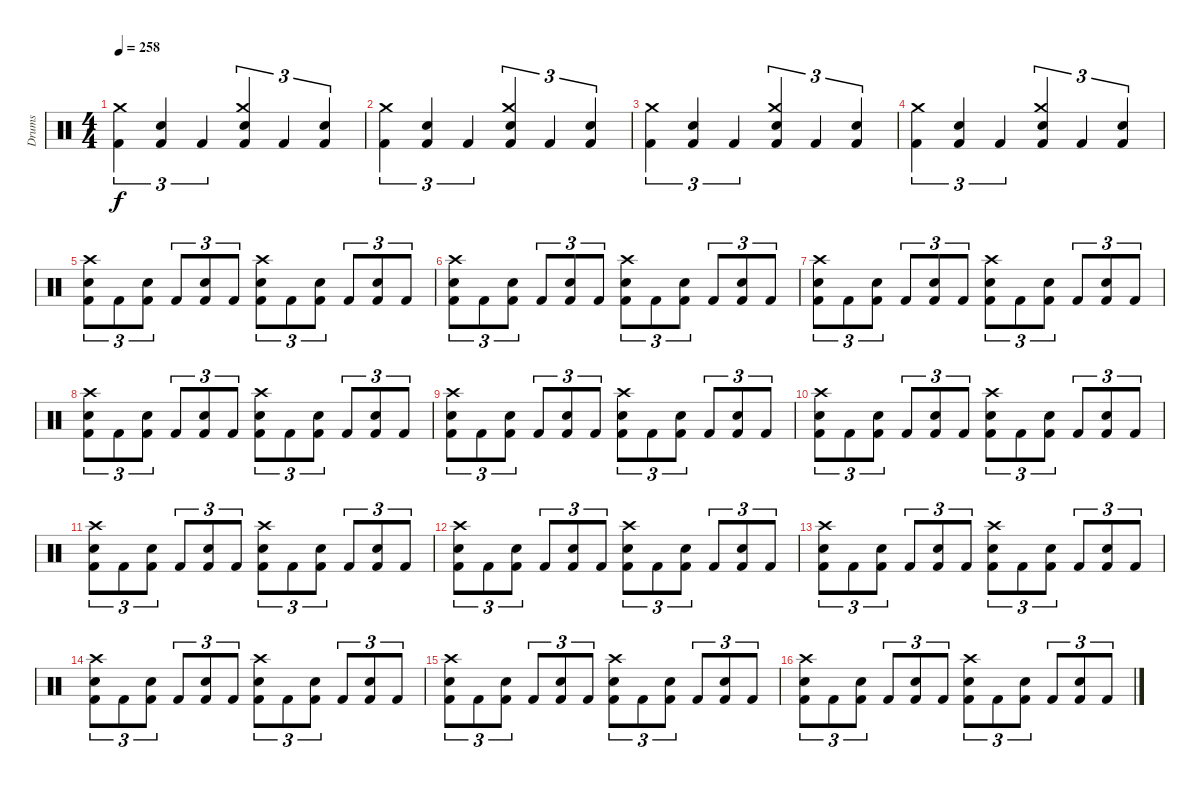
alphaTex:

\track ("Drums" "Drums") {instrument percussion}
\staff {score}
\articulation defaults
\ts (4 4)
\tempo 258
\clef neutral
\ks c
("Kick (hit) 2" "Crash medium (hit)").4{tu (3 2) dy f} ("Kick (hit) 2" "Snare (hit) 2").4{tu (3 2)} "Kick (hit) 2".4{tu (3 2)} ("Kick (hit) 2" "Snare (hit) 2" "Crash medium (hit)").4{tu (3 2)} "Kick (hit) 2".4{tu (3 2)} ("Kick (hit) 2" "Snare (hit) 2").4{tu (3 2)} |
("Kick (hit) 2" "Crash medium (hit)").4{tu (3 2)} ("Kick (hit) 2" "Snare (hit) 2").4{tu (3 2)} "Kick (hit) 2".4{tu (3 2)} ("Kick (hit) 2" "Snare (hit) 2" "Crash medium (hit)").4{tu (3 2)} "Kick (hit) 2".4{tu (3 2)} ("Kick (hit) 2" "Snare (hit) 2").4{tu (3 2)} |
("Kick (hit) 2" "Crash medium (hit)").4{tu (3 2)} ("Kick (hit) 2" "Snare (hit) 2").4{tu (3 2)} "Kick (hit) 2".4{tu (3 2)} ("Kick (hit) 2" "Snare (hit) 2" "Crash medium (hit)").4{tu (3 2)} "Kick (hit) 2".4{tu (3 2)} ("Kick (hit) 2" "Snare (hit) 2").4{tu (3 2)} |
("Kick (hit) 2" "Crash medium (hit)").4{tu (3 2)} ("Kick (hit) 2" "Snare (hit) 2").4{tu (3 2)} "Kick (hit) 2".4{tu (3 2)} ("Kick (hit) 2" "Snare (hit) 2" "Crash medium (hit)").4{tu (3 2)} "Kick (hit) 2".4{tu (3 2)} ("Kick (hit) 2" "Snare (hit) 2").4{tu (3 2)} |
("Kick (hit) 2" "Snare (hit) 2" "Crash high (hit)").8{tu (3 2)} "Kick (hit) 2".8{tu (3 2)} ("Kick (hit) 2" "Snare (hit) 2").8{tu (3 2)} "Kick (hit) 2".8{tu (3 2)} ("Kick (hit) 2" "Snare (hit) 2").8{tu (3 2)} "Kick (hit) 2".8{tu (3 2)} ("Kick (hit) 2" "Snare (hit) 2" "Crash high (hit)").8{tu (3 2)} "Kick (hit) 2".8{tu (3 2)} ("Kick (hit) 2" "Snare (hit) 2").8{tu (3 2)} "Kick (hit) 2".8{tu (3 2)} ("Kick (hit) 2" "Snare (hit) 2").8{tu (3 2)} "Kick (hit) 2".8{tu (3 2)} |
("Kick (hit) 2" "Snare (hit) 2" "Crash high (hit)").8{tu (3 2)} "Kick (hit) 2".8{tu (3 2)} ("Kick (hit) 2" "Snare (hit) 2").8{tu (3 2)} "Kick (hit) 2".8{tu (3 2)} ("Kick (hit) 2" "Snare (hit) 2").8{tu (3 2)} "Kick (hit) 2".8{tu (3 2)} ("Kick (hit) 2" "Snare (hit) 2" "Crash high (hit)").8{tu (3 2)} "Kick (hit) 2".8{tu (3 2)} ("Kick (hit) 2" "Snare (hit) 2").8{tu (3 2)} "Kick (hit) 2".8{tu (3 2)} ("Kick (hit) 2" "Snare (hit) 2").8{tu (3 2)} "Kick (hit) 2".8{tu (3 2)} |
("Kick (hit) 2" "Snare (hit) 2" "Crash high (hit)").8{tu (3 2)} "Kick (hit) 2".8{tu (3 2)} ("Kick (hit) 2" "Snare (hit) 2").8{tu (3 2)} "Kick (hit) 2".8{tu (3 2)} ("Kick (hit) 2" "Snare (hit) 2").8{tu (3 2)} "Kick (hit) 2".8{tu (3 2)} ("Kick (hit) 2" "Snare (hit) 2" "Crash high (hit)").8{tu (3 2)} "Kick (hit) 2".8{tu (3 2)} ("Kick (hit) 2" "Snare (hit) 2").8{tu (3 2)} "Kick (hit) 2".8{tu (3 2)} ("Kick (hit) 2" "Snare (hit) 2").8{tu (3 2)} "Kick (hit) 2".8{tu (3 2)} |
("Kick (hit) 2" "Snare (hit) 2" "Crash high (hit)").8{tu (3 2)} "Kick (hit) 2".8{tu (3 2)} ("Kick (hit) 2" "Snare (hit) 2").8{tu (3 2)} "Kick (hit) 2".8{tu (3 2)} ("Kick (hit) 2" "Snare (hit) 2").8{tu (3 2)} "Kick (hit) 2".8{tu (3 2)} ("Kick (hit) 2" "Snare (hit) 2" "Crash high (hit)").8{tu (3 2)} "Kick (hit) 2".8{tu (3 2)} ("Kick (hit) 2" "Snare (hit) 2").8{tu (3 2)} "Kick (hit) 2".8{tu (3 2)} ("Kick (hit) 2" "Snare (hit) 2").8{tu (3 2)} "Kick (hit) 2".8{tu (3 2)} |
("Kick (hit) 2" "Snare (hit) 2" "Crash high (hit)").8{tu (3 2)} "Kick (hit) 2".8{tu (3 2)} ("Kick (hit) 2" "Snare (hit) 2").8{tu (3 2)} "Kick (hit) 2".8{tu (3 2)} ("Kick (hit) 2" "Snare (hit) 2").8{tu (3 2)} "Kick (hit) 2".8{tu (3 2)} ("Kick (hit) 2" "Snare (hit) 2" "Crash high (hit)").8{tu (3 2)} "Kick (hit) 2".8{tu (3 2)} ("Kick (hit) 2" "Snare (hit) 2").8{tu (3 2)} "Kick (hit) 2".8{tu (3 2)} ("Kick (hit) 2" "Snare (hit) 2").8{tu (3 2)} "Kick (hit) 2".8{tu (3 2)} |
("Kick (hit) 2" "Snare (hit) 2" "Crash high (hit)").8{tu (3 2)} "Kick (hit) 2".8{tu (3 2)} ("Kick (hit) 2" "Snare (hit) 2").8{tu (3 2)} "Kick (hit) 2".8{tu (3 2)} ("Kick (hit) 2" "Snare (hit) 2").8{tu (3 2)} "Kick (hit) 2".8{tu (3 2)} ("Kick (hit) 2" "Snare (hit) 2" "Crash high (hit)").8{tu (3 2)} "Kick (hit) 2".8{tu (3 2)} ("Kick (hit) 2" "Snare (hit) 2").8{tu (3 2)} "Kick (hit) 2".8{tu (3 2)} ("Kick (hit) 2" "Snare (hit) 2").8{tu (3 2)} "Kick (hit) 2".8{tu (3 2)} |
("Kick (hit) 2" "Snare (hit) 2" "Crash high (hit)").8{tu (3 2)} "Kick (hit) 2".8{tu (3 2)} ("Kick (hit) 2" "Snare (hit) 2").8{tu (3 2)} "Kick (hit) 2".8{tu (3 2)} ("Kick (hit) 2" "Snare (hit) 2").8{tu (3 2)} "Kick (hit) 2".8{tu (3 2)} ("Kick (hit) 2" "Snare (hit) 2" "Crash high (hit)").8{tu (3 2)} "Kick (hit) 2".8{tu (3 2)} ("Kick (hit) 2" "Snare (hit) 2").8{tu (3 2)} "Kick (hit) 2".8{tu (3 2)} ("Kick (hit) 2" "Snare (hit) 2").8{tu (3 2)} "Kick (hit) 2".8{tu (3 2)} |
("Kick (hit) 2" "Snare (hit) 2" "Crash high (hit)").8{tu (3 2)} "Kick (hit) 2".8{tu (3 2)} ("Kick (hit) 2" "Snare (hit) 2").8{tu (3 2)} "Kick (hit) 2".8{tu (3 2)} ("Kick (hit) 2" "Snare (hit) 2").8{tu (3 2)} "Kick (hit) 2".8{tu (3 2)} ("Kick (hit) 2" "Snare (hit) 2" "Crash high (hit)").8{tu (3 2)} "Kick (hit) 2".8{tu (3 2)} ("Kick (hit) 2" "Snare (hit) 2").8{tu (3 2)} "Kick (hit) 2".8{tu (3 2)} ("Kick (hit) 2" "Snare (hit) 2").8{tu (3 2)} "Kick (hit) 2".8{tu (3 2)} |
("Kick (hit) 2" "Snare (hit) 2" "Crash high (hit)").8{tu (3 2)} "Kick (hit) 2".8{tu (3 2)} ("Kick (hit) 2" "Snare (hit) 2").8{tu (3 2)} "Kick (hit) 2".8{tu (3 2)} ("Kick (hit) 2" "Snare (hit) 2").8{tu (3 2)} "Kick (hit) 2".8{tu (3 2)} ("Kick (hit) 2" "Snare (hit) 2" "Crash high (hit)").8{tu (3 2)} "Kick (hit) 2".8{tu (3 2)} ("Kick (hit) 2" "Snare (hit) 2").8{tu (3 2)} "Kick (hit) 2".8{tu (3 2)} ("Kick (hit) 2" "Snare (hit) 2").8{tu (3 2)} "Kick (hit) 2".8{tu (3 2)} |
("Kick (hit) 2" "Snare (hit) 2" "Crash high (hit)").8{tu (3 2)} "Kick (hit) 2".8{tu (3 2)} ("Kick (hit) 2" "Snare (hit) 2").8{tu (3 2)} "Kick (hit) 2".8{tu (3 2)} ("Kick (hit) 2" "Snare (hit) 2").8{tu (3 2)} "Kick (hit) 2".8{tu (3 2)} ("Kick (hit) 2" "Snare (hit) 2" "Crash high (hit)").8{tu (3 2)} "Kick (hit) 2".8{tu (3 2)} ("Kick (hit) 2" "Snare (hit) 2").8{tu (3 2)} "Kick (hit) 2".8{tu (3 2)} ("Kick (hit) 2" "Snare (hit) 2").8{tu (3 2)} "Kick (hit) 2".8{tu (3 2)} |
("Kick (hit) 2" "Snare (hit) 2" "Crash high (hit)").8{tu (3 2)} "Kick (hit) 2".8{tu (3 2)} ("Kick (hit) 2" "Snare (hit) 2").8{tu (3 2)} "Kick (hit) 2".8{tu (3 2)} ("Kick (hit) 2" "Snare (hit) 2").8{tu (3 2)} "Kick (hit) 2".8{tu (3 2)} ("Kick (hit) 2" "Snare (hit) 2" "Crash high (hit)").8{tu (3 2)} "Kick (hit) 2".8{tu (3 2)} ("Kick (hit) 2" "Snare (hit) 2").8{tu (3 2)} "Kick (hit) 2".8{tu (3 2)} ("Kick (hit) 2" "Snare (hit) 2").8{tu (3 2)} "Kick (hit) 2".8{tu (3 2)} |
("Kick (hit) 2" "Snare (hit) 2" "Crash high (hit)").8{tu (3 2)} "Kick (hit) 2".8{tu (3 2)} ("Kick (hit) 2" "Snare (hit) 2").8{tu (3 2)} "Kick (hit) 2".8{tu (3 2)} ("Kick (hit) 2" "Snare (hit) 2").8{tu (3 2)} "Kick (hit) 2".8{tu (3 2)} ("Kick (hit) 2" "Snare (hit) 2" "Crash high (hit)").8{tu (3 2)} "Kick (hit) 2".8{tu (3 2)} ("Kick (hit) 2" "Snare (hit) 2").8{tu (3 2)} "Kick (hit) 2".8{tu (3 2)} ("Kick (hit) 2" "Snare (hit) 2").8{tu (3 2)} "Kick (hit) 2".8{tu (3 2)}
